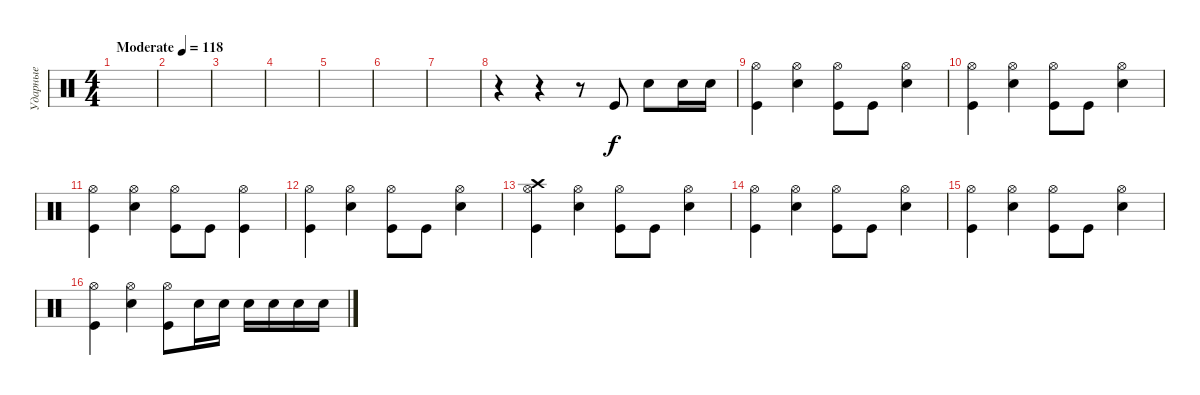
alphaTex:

\track ("Ударные" "Ударные") {instrument percussion}
\staff {score}
\articulation defaults
\ts (4 4)
\tempo (118 "Moderate")
\clef neutral
\ks c
|
|
|
|
|
|
|
r.4 r.4 r.8 "Kick (hit)".8 "Snare (hit) 2".8 "Snare (hit) 2".16 "Snare (hit) 2".16 |
("Hi-Hat (open)" "Kick (hit)").4 ("Hi-Hat (open)" "Snare (hit) 2").4 ("Hi-Hat (open)" "Kick (hit)").8 "Kick (hit)".8 ("Hi-Hat (open)" "Snare (hit) 2").4 |
("Hi-Hat (open)" "Kick (hit)").4 ("Hi-Hat (open)" "Snare (hit) 2").4 ("Hi-Hat (open)" "Kick (hit)").8 "Kick (hit)".8 ("Hi-Hat (open)" "Snare (hit) 2").4 |
("Hi-Hat (open)" "Kick (hit)").4 ("Hi-Hat (open)" "Snare (hit) 2").4 ("Hi-Hat (open)" "Kick (hit)").8 "Kick (hit)".8 ("Hi-Hat (open)" "Kick (hit)").4 |
("Hi-Hat (open)" "Kick (hit)").4 ("Hi-Hat (open)" "Snare (hit) 2").4 ("Hi-Hat (open)" "Kick (hit)").8 "Kick (hit)".8 ("Hi-Hat (open)" "Snare (hit) 2").4 |
("Hi-Hat (open)" "Crash high (hit)" "Kick (hit)").4 ("Hi-Hat (open)" "Snare (hit) 2").4 ("Hi-Hat (open)" "Kick (hit)").8 "Kick (hit)".8 ("Hi-Hat (open)" "Snare (hit) 2").4 |
("Hi-Hat (open)" "Kick (hit)").4 ("Hi-Hat (open)" "Snare (hit) 2").4 ("Hi-Hat (open)" "Kick (hit)").8 "Kick (hit)".8 ("Hi-Hat (open)" "Snare (hit) 2").4 |
("Hi-Hat (open)" "Kick (hit)").4 ("Hi-Hat (open)" "Snare (hit) 2").4 ("Hi-Hat (open)" "Kick (hit)").8 "Kick (hit)".8 ("Hi-Hat (open)" "Snare (hit) 2").4 |
("Hi-Hat (open)" "Kick (hit)").4 ("Hi-Hat (open)" "Snare (hit) 2").4 ("Hi-Hat (open)" "Kick (hit)").8 "Snare (hit) 2".16 "Snare (hit) 2".16 "Snare (hit) 2".16 "Snare (hit) 2".16 "Snare (hit) 2".16 "Snare (hit) 2".16
